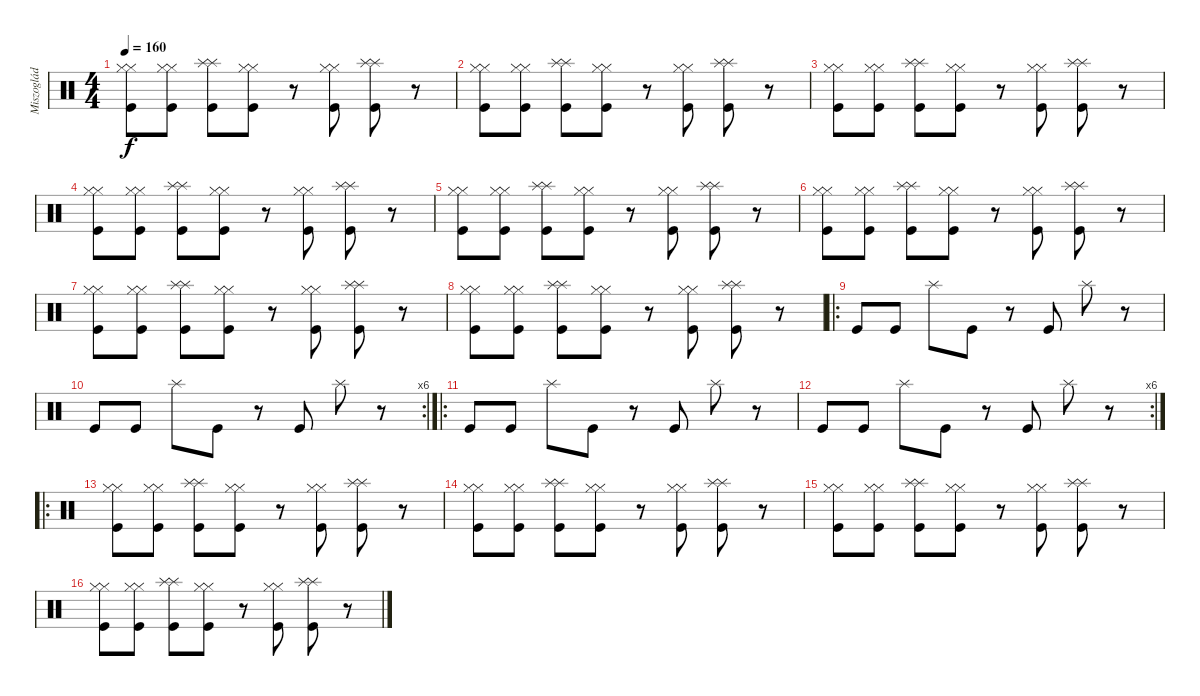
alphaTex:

\track ("Miszoglád Henrik - Dob" "Miszoglád ") {instrument percussion}
\staff {score}
\articulation defaults
\ts (4 4)
\tempo 160
\clef neutral
\ks c
("Kick (hit)" "Hi-Hat (closed)" "Hi-Hat (closed)").8{dy f} ("Kick (hit)" "Hi-Hat (closed)" "Hi-Hat (closed)").8 ("Splash (hit)" "Splash (hit)" "Kick (hit)").8 ("Kick (hit)" "Hi-Hat (closed)" "Hi-Hat (closed)").8 r.8 ("Kick (hit)" "Hi-Hat (closed)" "Hi-Hat (closed)").8 ("Splash (hit)" "Splash (hit)" "Kick (hit)").8 r.8 |
("Kick (hit)" "Hi-Hat (closed)" "Hi-Hat (closed)").8 ("Kick (hit)" "Hi-Hat (closed)" "Hi-Hat (closed)").8 ("Splash (hit)" "Splash (hit)" "Kick (hit)").8 ("Kick (hit)" "Hi-Hat (closed)" "Hi-Hat (closed)").8 r.8 ("Kick (hit)" "Hi-Hat (closed)" "Hi-Hat (closed)").8 ("Splash (hit)" "Splash (hit)" "Kick (hit)").8 r.8 |
("Kick (hit)" "Hi-Hat (closed)" "Hi-Hat (closed)").8 ("Kick (hit)" "Hi-Hat (closed)" "Hi-Hat (closed)").8 ("Splash (hit)" "Splash (hit)" "Kick (hit)").8 ("Kick (hit)" "Hi-Hat (closed)" "Hi-Hat (closed)").8 r.8 ("Kick (hit)" "Hi-Hat (closed)" "Hi-Hat (closed)").8 ("Splash (hit)" "Splash (hit)" "Kick (hit)").8 r.8 |
("Kick (hit)" "Hi-Hat (closed)" "Hi-Hat (closed)").8 ("Kick (hit)" "Hi-Hat (closed)" "Hi-Hat (closed)").8 ("Splash (hit)" "Splash (hit)" "Kick (hit)").8 ("Kick (hit)" "Hi-Hat (closed)" "Hi-Hat (closed)").8 r.8 ("Kick (hit)" "Hi-Hat (closed)" "Hi-Hat (closed)").8 ("Splash (hit)" "Splash (hit)" "Kick (hit)").8 r.8 |
("Kick (hit)" "Hi-Hat (closed)" "Hi-Hat (closed)").8 ("Kick (hit)" "Hi-Hat (closed)" "Hi-Hat (closed)").8 ("Splash (hit)" "Splash (hit)" "Kick (hit)").8 ("Kick (hit)" "Hi-Hat (closed)" "Hi-Hat (closed)").8 r.8 ("Kick (hit)" "Hi-Hat (closed)" "Hi-Hat (closed)").8 ("Splash (hit)" "Splash (hit)" "Kick (hit)").8 r.8 |
("Kick (hit)" "Hi-Hat (closed)" "Hi-Hat (closed)").8 ("Kick (hit)" "Hi-Hat (closed)" "Hi-Hat (closed)").8 ("Splash (hit)" "Splash (hit)" "Kick (hit)").8 ("Kick (hit)" "Hi-Hat (closed)" "Hi-Hat (closed)").8 r.8 ("Kick (hit)" "Hi-Hat (closed)" "Hi-Hat (closed)").8 ("Splash (hit)" "Splash (hit)" "Kick (hit)").8 r.8 |
("Kick (hit)" "Hi-Hat (closed)" "Hi-Hat (closed)").8 ("Kick (hit)" "Hi-Hat (closed)" "Hi-Hat (closed)").8 ("Splash (hit)" "Splash (hit)" "Kick (hit)").8 ("Kick (hit)" "Hi-Hat (closed)" "Hi-Hat (closed)").8 r.8 ("Kick (hit)" "Hi-Hat (closed)" "Hi-Hat (closed)").8 ("Splash (hit)" "Splash (hit)" "Kick (hit)").8 r.8 |
("Kick (hit)" "Hi-Hat (closed)" "Hi-Hat (closed)").8 ("Kick (hit)" "Hi-Hat (closed)" "Hi-Hat (closed)").8 ("Splash (hit)" "Splash (hit)" "Kick (hit)").8 ("Kick (hit)" "Hi-Hat (closed)" "Hi-Hat (closed)").8 r.8 ("Kick (hit)" "Hi-Hat (closed)" "Hi-Hat (closed)").8 ("Splash (hit)" "Splash (hit)" "Kick (hit)").8 r.8 |
\ro "Kick (hit)".8 "Kick (hit)".8 "Splash (hit)".8 "Kick (hit)".8
r.8 "Kick (hit)".8 "Splash (hit)".8 r.8 |
\rc 6 "Kick (hit)".8 "Kick (hit)".8 "Splash (hit)".8 "Kick (hit)".8
r.8 "Kick (hit)".8 "Splash (hit)".8 r.8 |
\ro "Kick (hit)".8 "Kick (hit)".8 "Splash (hit)".8 "Kick (hit)".8
r.8 "Kick (hit)".8 "Splash (hit)".8 r.8 |
\rc 6 "Kick (hit)".8 "Kick (hit)".8 "Splash (hit)".8 "Kick (hit)".8
r.8 "Kick (hit)".8 "Splash (hit)".8 r.8 |
\ro
("Kick (hit)" "Hi-Hat (closed)" "Hi-Hat (closed)").8 ("Kick (hit)" "Hi-Hat (closed)" "Hi-Hat (closed)").8 ("Splash (hit)" "Splash (hit)" "Kick (hit)").8 ("Kick (hit)" "Hi-Hat (closed)" "Hi-Hat (closed)").8 r.8 ("Kick (hit)" "Hi-Hat (closed)" "Hi-Hat (closed)").8 ("Splash (hit)" "Splash (hit)" "Kick (hit)").8 r.8 |
("Kick (hit)" "Hi-Hat (closed)" "Hi-Hat (closed)").8 ("Kick (hit)" "Hi-Hat (closed)" "Hi-Hat (closed)").8 ("Splash (hit)" "Splash (hit)" "Kick (hit)").8 ("Kick (hit)" "Hi-Hat (closed)" "Hi-Hat (closed)").8 r.8 ("Kick (hit)" "Hi-Hat (closed)" "Hi-Hat (closed)").8 ("Splash (hit)" "Splash (hit)" "Kick (hit)").8 r.8 |
("Kick (hit)" "Hi-Hat (closed)" "Hi-Hat (closed)").8 ("Kick (hit)" "Hi-Hat (closed)" "Hi-Hat (closed)").8 ("Splash (hit)" "Splash (hit)" "Kick (hit)").8 ("Kick (hit)" "Hi-Hat (closed)" "Hi-Hat (closed)").8 r.8 ("Kick (hit)" "Hi-Hat (closed)" "Hi-Hat (closed)").8 ("Splash (hit)" "Splash (hit)" "Kick (hit)").8 r.8 |
("Kick (hit)" "Hi-Hat (closed)" "Hi-Hat (closed)").8 ("Kick (hit)" "Hi-Hat (closed)" "Hi-Hat (closed)").8 ("Splash (hit)" "Splash (hit)" "Kick (hit)").8 ("Kick (hit)" "Hi-Hat (closed)" "Hi-Hat (closed)").8 r.8 ("Kick (hit)" "Hi-Hat (closed)" "Hi-Hat (closed)").8 ("Splash (hit)" "Splash (hit)" "Kick (hit)").8 r.8
